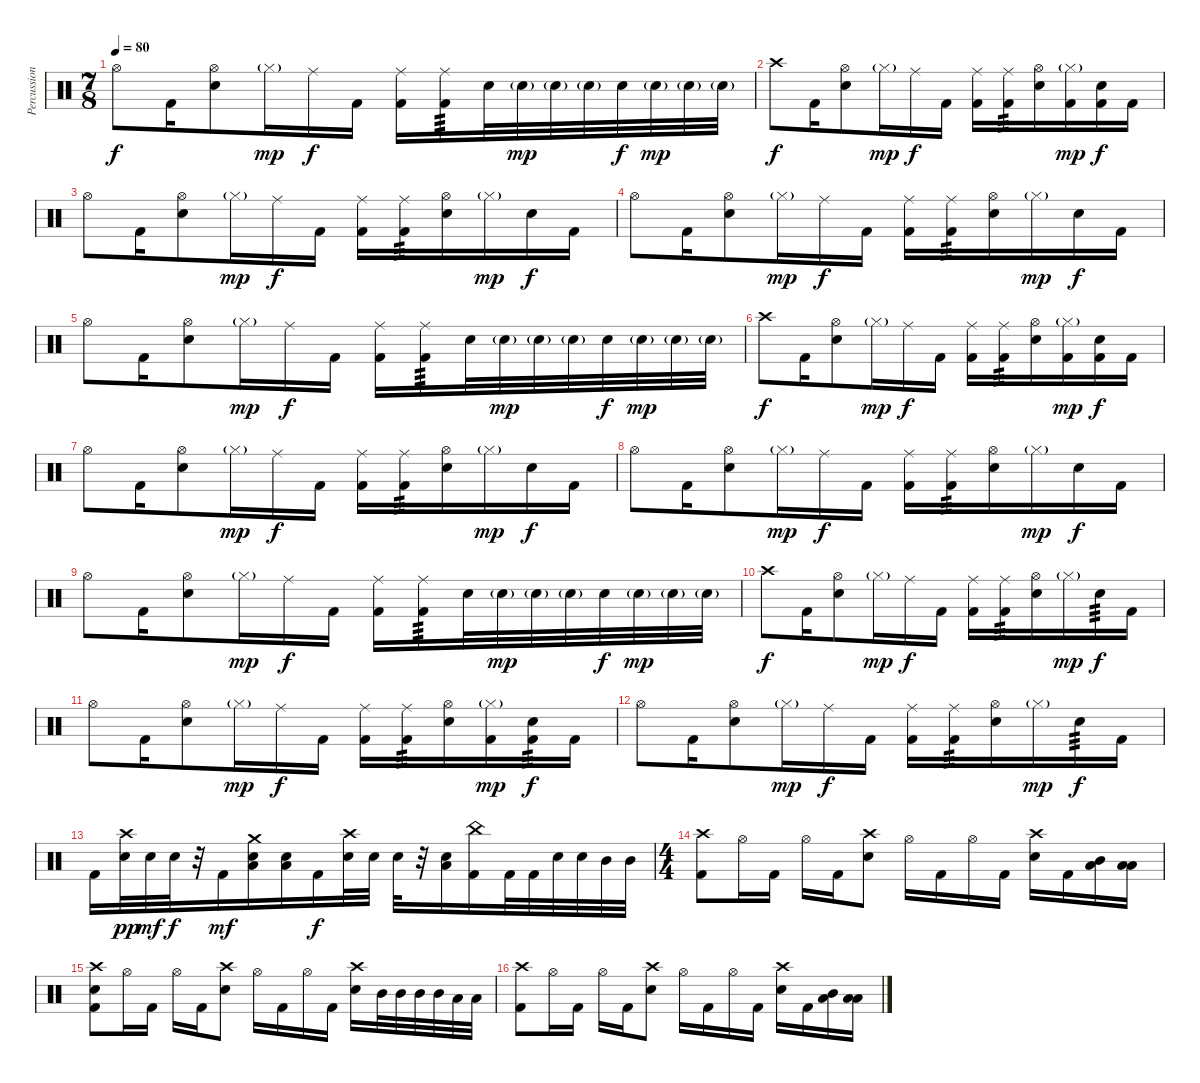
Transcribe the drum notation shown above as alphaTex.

\track ("Percussion" "Percussion") {instrument percussion}
\staff {score}
\articulation defaults
\ts (7 8)
\tempo 80
\clef neutral
\ks c "Hi-Hat (open)".8{dy f} "Kick (hit) 2".16
("Hi-Hat (open)" "Snare (hit) 2").8 "Hi-Hat (closed)"{g}.16{dy mp} "Ride (middle)".16{dy f} "Kick (hit) 2".16 ("Ride (middle)" "Kick (hit) 2").16 ("Ride (middle)" "Kick (hit) 2").16{tp 3} "Snare (hit) 2".32 "Snare (hit) 2"{g}.32{dy mp} "Snare (hit) 2"{g}.32 "Snare (hit) 2"{g}.32 "Snare (hit) 2".32{dy f} "Snare (hit) 2"{g}.32{dy mp} "Snare (hit) 2"{g}.32 "Snare (hit) 2"{g}.32 |
"Crash high (hit)".8{dy f} "Kick (hit) 2".16 ("Hi-Hat (open)" "Snare (hit) 2").8 "Hi-Hat (closed)"{g}.16{dy mp} "Ride (middle)".16{dy f} "Kick (hit) 2".16 ("Ride (middle)" "Kick (hit) 2").16 ("Ride (middle)" "Kick (hit) 2").16{tp 3} ("Hi-Hat (open)" "Snare (hit) 2").16 ("Hi-Hat (closed)"{g} "Kick (hit) 2").16{dy mp} ("Snare (hit) 2" "Kick (hit) 2").16{dy f} "Kick (hit) 2".16 |
"Hi-Hat (open)".8 "Kick (hit) 2".16 ("Hi-Hat (open)" "Snare (hit) 2").8 "Hi-Hat (closed)"{g}.16{dy mp} "Ride (middle)".16{dy f} "Kick (hit) 2".16 ("Ride (middle)" "Kick (hit) 2").16 ("Ride (middle)" "Kick (hit) 2").16{tp 3} ("Hi-Hat (open)" "Snare (hit) 2").16 "Hi-Hat (closed)"{g}.16{dy mp} "Snare (hit) 2".16{dy f} "Kick (hit) 2".16 |
"Hi-Hat (open)".8 "Kick (hit) 2".16 ("Hi-Hat (open)" "Snare (hit) 2").8 "Hi-Hat (closed)"{g}.16{dy mp} "Ride (middle)".16{dy f} "Kick (hit) 2".16 ("Ride (middle)" "Kick (hit) 2").16 ("Ride (middle)" "Kick (hit) 2").16{tp 3} ("Hi-Hat (open)" "Snare (hit) 2").16 "Hi-Hat (closed)"{g}.16{dy mp} "Snare (hit) 2".16{dy f} "Kick (hit) 2".16 |
"Hi-Hat (open)".8 "Kick (hit) 2".16 ("Hi-Hat (open)" "Snare (hit) 2").8 "Hi-Hat (closed)"{g}.16{dy mp} "Ride (middle)".16{dy f} "Kick (hit) 2".16 ("Ride (middle)" "Kick (hit) 2").16 ("Ride (middle)" "Kick (hit) 2").16{tp 3} "Snare (hit) 2".32 "Snare (hit) 2"{g}.32{dy mp} "Snare (hit) 2"{g}.32 "Snare (hit) 2"{g}.32 "Snare (hit) 2".32{dy f} "Snare (hit) 2"{g}.32{dy mp} "Snare (hit) 2"{g}.32 "Snare (hit) 2"{g}.32 |
"Crash high (hit)".8{dy f} "Kick (hit) 2".16 ("Hi-Hat (open)" "Snare (hit) 2").8 "Hi-Hat (closed)"{g}.16{dy mp} "Ride (middle)".16{dy f} "Kick (hit) 2".16 ("Ride (middle)" "Kick (hit) 2").16 ("Ride (middle)" "Kick (hit) 2").16{tp 3} ("Hi-Hat (open)" "Snare (hit) 2").16 ("Hi-Hat (closed)"{g} "Kick (hit) 2").16{dy mp} ("Snare (hit) 2" "Kick (hit) 2").16{dy f} "Kick (hit) 2".16 |
"Hi-Hat (open)".8 "Kick (hit) 2".16 ("Hi-Hat (open)" "Snare (hit) 2").8 "Hi-Hat (closed)"{g}.16{dy mp} "Ride (middle)".16{dy f} "Kick (hit) 2".16 ("Ride (middle)" "Kick (hit) 2").16 ("Ride (middle)" "Kick (hit) 2").16{tp 3} ("Hi-Hat (open)" "Snare (hit) 2").16 "Hi-Hat (closed)"{g}.16{dy mp} "Snare (hit) 2".16{dy f} "Kick (hit) 2".16 |
"Hi-Hat (open)".8 "Kick (hit) 2".16 ("Hi-Hat (open)" "Snare (hit) 2").8 "Hi-Hat (closed)"{g}.16{dy mp} "Ride (middle)".16{dy f} "Kick (hit) 2".16 ("Ride (middle)" "Kick (hit) 2").16 ("Ride (middle)" "Kick (hit) 2").16{tp 3} ("Hi-Hat (open)" "Snare (hit) 2").16 "Hi-Hat (closed)"{g}.16{dy mp} "Snare (hit) 2".16{dy f} "Kick (hit) 2".16 |
"Hi-Hat (open)".8 "Kick (hit) 2".16 ("Hi-Hat (open)" "Snare (hit) 2").8 "Hi-Hat (closed)"{g}.16{dy mp} "Ride (middle)".16{dy f} "Kick (hit) 2".16 ("Ride (middle)" "Kick (hit) 2").16 ("Ride (middle)" "Kick (hit) 2").16{tp 3} "Snare (hit) 2".32 "Snare (hit) 2"{g}.32{dy mp} "Snare (hit) 2"{g}.32 "Snare (hit) 2"{g}.32 "Snare (hit) 2".32{dy f} "Snare (hit) 2"{g}.32{dy mp} "Snare (hit) 2"{g}.32 "Snare (hit) 2"{g}.32 |
"Crash high (hit)".8{dy f} "Kick (hit) 2".16 ("Hi-Hat (open)" "Snare (hit) 2").8 "Hi-Hat (closed)"{g}.16{dy mp} "Ride (middle)".16{dy f} "Kick (hit) 2".16 ("Ride (middle)" "Kick (hit) 2").16 ("Ride (middle)" "Kick (hit) 2").16{tp 3} ("Hi-Hat (open)" "Snare (hit) 2").16 "Hi-Hat (closed)"{g}.16{dy mp} "Snare (hit) 2".16{tp 3 dy f} "Kick (hit) 2".16 |
"Hi-Hat (open)".8 "Kick (hit) 2".16 ("Hi-Hat (open)" "Snare (hit) 2").8 "Hi-Hat (closed)"{g}.16{dy mp} "Ride (middle)".16{dy f} "Kick (hit) 2".16 ("Ride (middle)" "Kick (hit) 2").16 ("Ride (middle)" "Kick (hit) 2").16{tp 3} ("Hi-Hat (open)" "Snare (hit) 2").16 ("Hi-Hat (closed)"{g} "Kick (hit) 2").16{dy mp} ("Snare (hit) 2" "Kick (hit) 2").16{tp 3 dy f} "Kick (hit) 2".16 |
"Hi-Hat (open)".8 "Kick (hit) 2".16 ("Hi-Hat (open)" "Snare (hit) 2").8 "Hi-Hat (closed)"{g}.16{dy mp} "Ride (middle)".16{dy f} "Kick (hit) 2".16 ("Ride (middle)" "Kick (hit) 2").16 ("Ride (middle)" "Kick (hit) 2").16{tp 3} ("Hi-Hat (open)" "Snare (hit) 2").16 "Hi-Hat (closed)"{g}.16{dy mp} "Snare (hit) 2".16{tp 3 dy f} "Kick (hit) 2".16 |
"Kick (hit) 2".16 ("Crash high (hit)" "Snare (hit) 2").32{dy pp} "Snare (hit) 2".32{dy mf} "Snare (hit) 2".32{dy f} r.32 "Kick (hit) 2".16{dy mf} ("Crash medium (hit)" "Low Floor Tom (hit)" "Snare (hit) 2").16 ("Low Floor Tom (hit)" "Snare (hit) 2").16 "Kick (hit) 2".16{dy f} ("Crash high (hit)" "Snare (hit) 2").32 "Snare (hit) 2".32 "Snare (hit) 2".32 r.32 ("Low Floor Tom (hit)" "Snare (hit) 2").16 ("China (hit)" "Kick (hit) 2").16 "Kick (hit) 2".32 "Kick (hit) 2".32 "Snare (hit) 2".32 "Snare (hit) 2".32 "Mid Tom (hit)".32 "Mid Tom (hit)".32 |
\ts (4 4)
("Crash high (hit)" "Kick (hit) 2").8 "Hi-Hat (open)".16 "Kick (hit) 2".16 "Hi-Hat (open)".16 "Kick (hit) 2".16 ("Crash high (hit)" "Snare (hit) 2").8 "Hi-Hat (open)".16 "Kick (hit) 2".16 "Hi-Hat (open)".16 "Kick (hit) 2".16 ("Crash high (hit)" "Snare (hit) 2").16 "Kick (hit) 2".16 ("Mid Tom (hit)" "Low Tom (hit)").16 ("Low Floor Tom (hit)" "Low Floor Tom (hit)").16 |
("Crash high (hit)" "Snare (hit) 2" "Kick (hit) 2").8 "Hi-Hat (open)".16 "Kick (hit) 2".16 "Hi-Hat (open)".16 "Kick (hit) 2".16 ("Crash high (hit)" "Snare (hit) 2").8 "Hi-Hat (open)".16 "Kick (hit) 2".16 "Hi-Hat (open)".16 "Kick (hit) 2".16 ("Crash high (hit)" "Snare (hit) 2").16 "Mid Tom (hit)".32 "Mid Tom (hit)".32 "Mid Tom (hit)".32 "Mid Tom (hit)".32 "Low Tom (hit)".32 "Low Tom (hit)".32 |
("Crash high (hit)" "Kick (hit) 2").8 "Hi-Hat (open)".16 "Kick (hit) 2".16 "Hi-Hat (open)".16 "Kick (hit) 2".16 ("Crash high (hit)" "Snare (hit) 2").8 "Hi-Hat (open)".16 "Kick (hit) 2".16 "Hi-Hat (open)".16 "Kick (hit) 2".16 ("Crash high (hit)" "Snare (hit) 2").16 "Kick (hit) 2".16 ("Mid Tom (hit)" "Low Tom (hit)").16 ("Low Floor Tom (hit)" "Low Floor Tom (hit)").16
